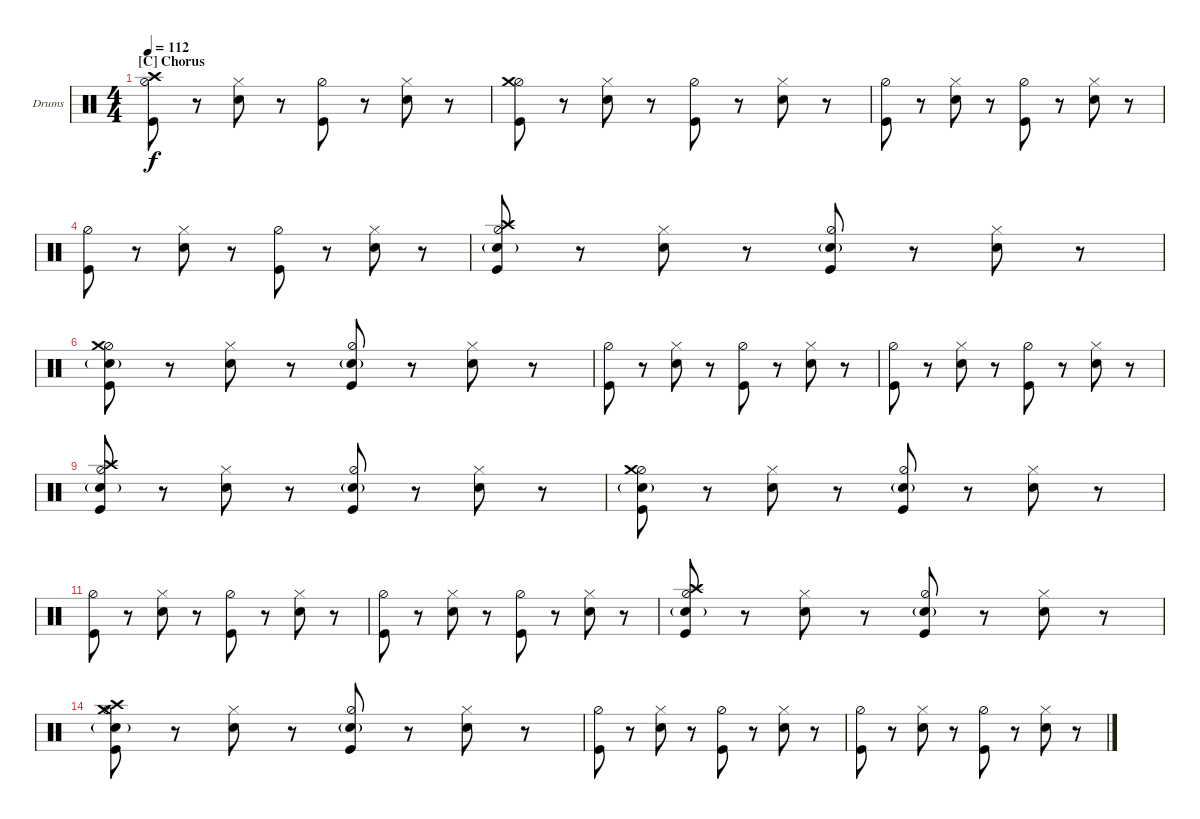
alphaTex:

\bracketExtendMode nobrackets
\firstSystemTrackNameOrientation horizontal
\otherSystemsTrackNameOrientation horizontal
\defaultBarNumberDisplay FirstOfSystem
\track ("Drumkit" "Drums") {instrument percussion}
\staff {score}
\articulation defaults
\ts (4 4)
\section ("C" "Chorus")
\tempo 112
\clef neutral
\ks c
("Kick (hit)" "Hi-Hat (half)" "Crash high (hit)").8{dy f} r.8 ("Snare (hit) 2" "Hi-Hat (closed)").8 r.8 ("Kick (hit)" "Hi-Hat (half)").8 r.8 ("Snare (hit) 2" "Hi-Hat (closed)").8 r.8 |
("Kick (hit)" "Hi-Hat (half)" "Crash medium (hit)").8 r.8 ("Snare (hit) 2" "Hi-Hat (closed)").8 r.8 ("Kick (hit)" "Hi-Hat (half)").8 r.8 ("Snare (hit) 2" "Hi-Hat (closed)").8 r.8 |
("Kick (hit)" "Hi-Hat (half)").8 r.8 ("Snare (hit) 2" "Hi-Hat (closed)").8 r.8 ("Kick (hit)" "Hi-Hat (half)").8 r.8 ("Snare (hit) 2" "Hi-Hat (closed)").8 r.8 |
("Kick (hit)" "Hi-Hat (half)").8 r.8 ("Snare (hit) 2" "Hi-Hat (closed)").8 r.8 ("Kick (hit)" "Hi-Hat (half)").8 r.8 ("Snare (hit) 2" "Hi-Hat (closed)").8 r.8 |
("Kick (hit)" "Hi-Hat (half)" "Crash high (hit)" "Snare (hit) 2"{g}).8 r.8 ("Snare (hit) 2" "Hi-Hat (closed)").8 r.8 ("Kick (hit)" "Hi-Hat (half)" "Snare (hit) 2"{g}).8 r.8 ("Snare (hit) 2" "Hi-Hat (closed)").8 r.8 |
("Kick (hit)" "Hi-Hat (half)" "Crash medium (hit)" "Snare (hit) 2"{g}).8 r.8 ("Snare (hit) 2" "Hi-Hat (closed)").8 r.8 ("Kick (hit)" "Hi-Hat (half)" "Snare (hit) 2"{g}).8 r.8 ("Snare (hit) 2" "Hi-Hat (closed)").8 r.8 |
("Kick (hit)" "Hi-Hat (half)").8 r.8 ("Snare (hit) 2" "Hi-Hat (closed)").8 r.8 ("Kick (hit)" "Hi-Hat (half)").8 r.8 ("Snare (hit) 2" "Hi-Hat (closed)").8 r.8 |
("Kick (hit)" "Hi-Hat (half)").8 r.8 ("Snare (hit) 2" "Hi-Hat (closed)").8 r.8 ("Kick (hit)" "Hi-Hat (half)").8 r.8 ("Snare (hit) 2" "Hi-Hat (closed)").8 r.8 |
("Kick (hit)" "Hi-Hat (half)" "Crash high (hit)" "Snare (hit) 2"{g}).8 r.8 ("Snare (hit) 2" "Hi-Hat (closed)").8 r.8 ("Kick (hit)" "Hi-Hat (half)" "Snare (hit) 2"{g}).8 r.8 ("Snare (hit) 2" "Hi-Hat (closed)").8 r.8 |
("Kick (hit)" "Hi-Hat (half)" "Crash medium (hit)" "Snare (hit) 2"{g}).8 r.8 ("Snare (hit) 2" "Hi-Hat (closed)").8 r.8 ("Kick (hit)" "Hi-Hat (half)" "Snare (hit) 2"{g}).8 r.8 ("Snare (hit) 2" "Hi-Hat (closed)").8 r.8 |
("Kick (hit)" "Hi-Hat (half)").8 r.8 ("Snare (hit) 2" "Hi-Hat (closed)").8 r.8 ("Kick (hit)" "Hi-Hat (half)").8 r.8 ("Snare (hit) 2" "Hi-Hat (closed)").8 r.8 |
("Kick (hit)" "Hi-Hat (half)").8 r.8 ("Snare (hit) 2" "Hi-Hat (closed)").8 r.8 ("Kick (hit)" "Hi-Hat (half)").8 r.8 ("Snare (hit) 2" "Hi-Hat (closed)").8 r.8 |
("Kick (hit)" "Hi-Hat (half)" "Crash high (hit)" "Snare (hit) 2"{g}).8 r.8 ("Snare (hit) 2" "Hi-Hat (closed)").8 r.8 ("Kick (hit)" "Hi-Hat (half)" "Snare (hit) 2"{g}).8 r.8 ("Snare (hit) 2" "Hi-Hat (closed)").8 r.8 |
("Kick (hit)" "Hi-Hat (half)" "Crash medium (hit)" "Crash high (hit)" "Snare (hit) 2"{g}).8 r.8 ("Snare (hit) 2" "Hi-Hat (closed)").8 r.8 ("Kick (hit)" "Hi-Hat (half)" "Snare (hit) 2"{g}).8 r.8 ("Snare (hit) 2" "Hi-Hat (closed)").8 r.8 |
("Kick (hit)" "Hi-Hat (half)").8 r.8 ("Snare (hit) 2" "Hi-Hat (closed)").8 r.8 ("Kick (hit)" "Hi-Hat (half)").8 r.8 ("Snare (hit) 2" "Hi-Hat (closed)").8 r.8 |
("Kick (hit)" "Hi-Hat (half)").8 r.8 ("Snare (hit) 2" "Hi-Hat (closed)").8 r.8 ("Kick (hit)" "Hi-Hat (half)").8 r.8 ("Snare (hit) 2" "Hi-Hat (closed)").8 r.8
